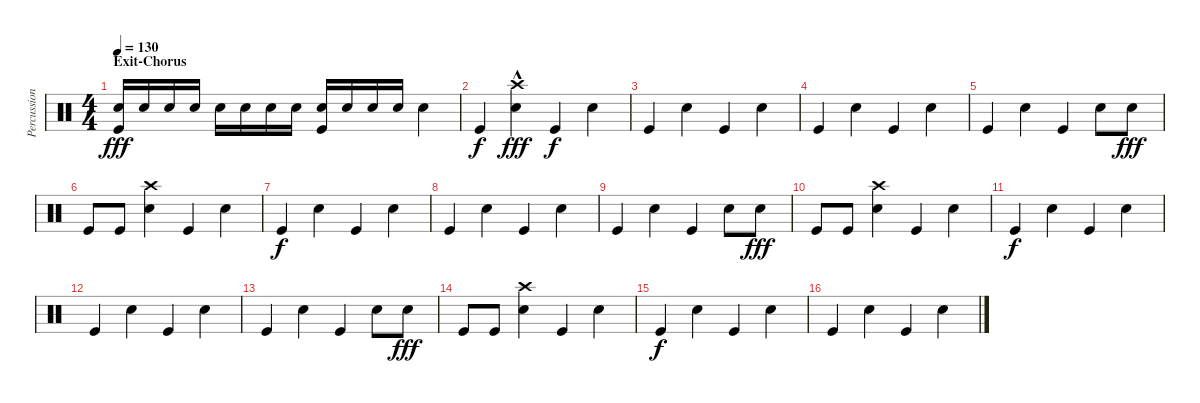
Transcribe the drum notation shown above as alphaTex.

\track ("Percussion" "Percussion") {instrument percussion}
\staff {score}
\articulation defaults
\ts (4 4)
\section ("" "Exit-Chorus")
\tempo 130
\clef neutral
\ks c
("Snare (hit) 2" "Kick (hit)").16{dy fff} "Snare (hit) 2".16 "Snare (hit) 2".16 "Snare (hit) 2".16 "Snare (hit) 2".16 "Snare (hit) 2".16 "Snare (hit) 2".16 "Snare (hit) 2".16 ("Snare (hit) 2" "Kick (hit)").16 "Snare (hit) 2".16 "Snare (hit) 2".16 "Snare (hit) 2".16 "Snare (hit) 2".4 |
"Kick (hit)".4{dy f} ("Crash high (hit)" "Snare (hit) 2"{hac}).4{dy fff} "Kick (hit)".4{dy f} "Snare (hit) 2".4 |
"Kick (hit)".4 "Snare (hit) 2".4 "Kick (hit)".4 "Snare (hit) 2".4 |
"Kick (hit)".4 "Snare (hit) 2".4 "Kick (hit)".4 "Snare (hit) 2".4 |
"Kick (hit)".4 "Snare (hit) 2".4 "Kick (hit)".4 "Snare (hit) 2".8 "Snare (hit) 2".8{dy fff} |
"Kick (hit)".8 "Kick (hit)".8 ("Crash high (hit)" "Snare (hit) 2").4 "Kick (hit)".4 "Snare (hit) 2".4 |
"Kick (hit)".4{dy f} "Snare (hit) 2".4 "Kick (hit)".4 "Snare (hit) 2".4 |
"Kick (hit)".4 "Snare (hit) 2".4 "Kick (hit)".4 "Snare (hit) 2".4 |
"Kick (hit)".4 "Snare (hit) 2".4 "Kick (hit)".4 "Snare (hit) 2".8 "Snare (hit) 2".8{dy fff} |
"Kick (hit)".8 "Kick (hit)".8 ("Crash high (hit)" "Snare (hit) 2").4 "Kick (hit)".4 "Snare (hit) 2".4 |
"Kick (hit)".4{dy f} "Snare (hit) 2".4 "Kick (hit)".4 "Snare (hit) 2".4 |
"Kick (hit)".4 "Snare (hit) 2".4 "Kick (hit)".4 "Snare (hit) 2".4 |
"Kick (hit)".4 "Snare (hit) 2".4 "Kick (hit)".4 "Snare (hit) 2".8 "Snare (hit) 2".8{dy fff} |
"Kick (hit)".8 "Kick (hit)".8 ("Crash high (hit)" "Snare (hit) 2").4 "Kick (hit)".4 "Snare (hit) 2".4 |
"Kick (hit)".4{dy f} "Snare (hit) 2".4 "Kick (hit)".4 "Snare (hit) 2".4 |
"Kick (hit)".4 "Snare (hit) 2".4 "Kick (hit)".4 "Snare (hit) 2".4
